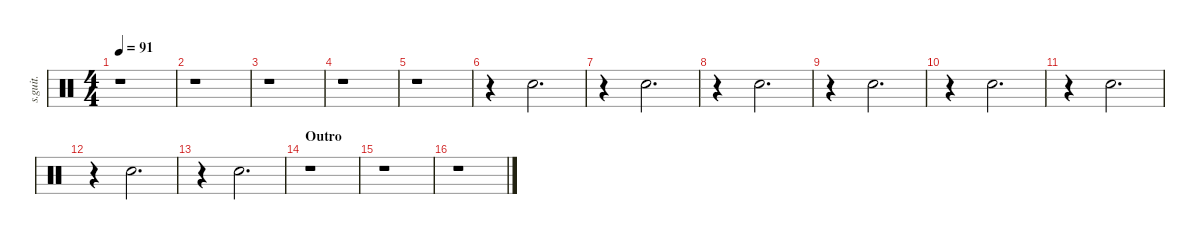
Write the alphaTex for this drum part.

\defaultSystemsLayout 4
\hideDynamics
\bracketExtendMode nobrackets
\track ("Hand Clap" "s.guit.") {instrument percussion}
\staff {score}
\articulation defaults
\ts (4 4)
\tempo 91
\clef neutral
\ks c
r.1{dy fff} |
r.1 |
r.1 |
r.1 |
r.1 |
r.4 "Hand Clap (hit)".2{d} |
r.4 "Hand Clap (hit)".2{d} |
r.4 "Hand Clap (hit)".2{d} |
r.4 "Hand Clap (hit)".2{d} |
r.4 "Hand Clap (hit)".2{d} |
r.4 "Hand Clap (hit)".2{d} |
r.4 "Hand Clap (hit)".2{d} |
r.4 "Hand Clap (hit)".2{d} |
\section ("" "Outro")
r.1 |
r.1 |
r.1
